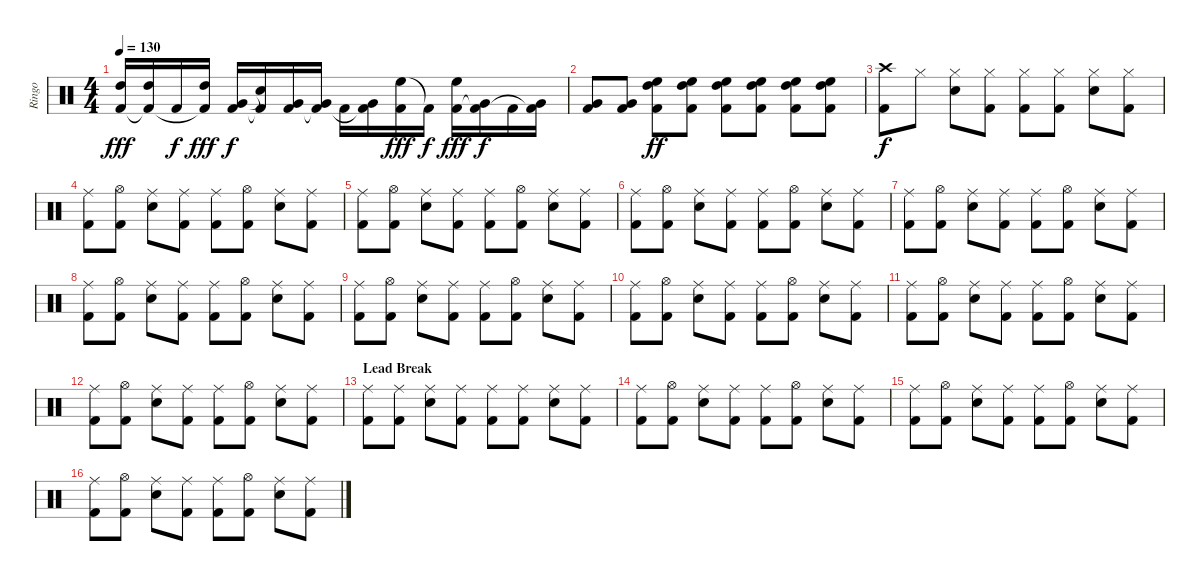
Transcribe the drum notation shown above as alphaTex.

\track ("Ringo" "Ringo") {instrument percussion}
\staff {score}
\articulation defaults
\ts (4 4)
\tempo 130
\clef neutral
\ks c
("High Tom (hit)" "Kick (hit) 2").16{dy fff} ("High Tom (hit)" "Kick (hit) 2"{t}).16 "Kick (hit) 2".16{dy f} ("High Tom (hit)" "Kick (hit) 2"{t}).16{dy fff} ("Very Low Tom (hit)" "Kick (hit) 2").16{dy f} ("Snare (hit)"{t} "Kick (hit) 2"{t}).16 ("Very Low Tom (hit)" "Kick (hit) 2").16 ("Very Low Tom (hit)" "Kick (hit) 2"{t}).16 "Kick (hit) 2".16 ("Very Low Tom (hit)" "Kick (hit) 2"{t}).16 ("High Floor Tom (hit)" "Kick (hit) 2").16{dy fff} "Kick (hit) 2"{t}.16{dy f} ("High Floor Tom (hit)" "Kick (hit) 2").16{dy fff} ("Very Low Tom (hit)" "Kick (hit) 2"{t}).16{dy f} "Kick (hit) 2".16 ("Very Low Tom (hit)" "Kick (hit) 2"{t}).16 |
("Very Low Tom (hit)" "Kick (hit) 2").8 ("Very Low Tom (hit)" "Kick (hit) 2").8 ("High Floor Tom (hit)" "High Tom (hit)" "Kick (hit) 2").8{dy ff} ("High Floor Tom (hit)" "High Tom (hit)" "Kick (hit) 2").8 ("High Floor Tom (hit)" "High Tom (hit)" "Kick (hit) 2").8 ("High Floor Tom (hit)" "High Tom (hit)" "Kick (hit) 2").8 ("High Floor Tom (hit)" "High Tom (hit)" "Kick (hit) 2").8 ("High Floor Tom (hit)" "High Tom (hit)" "Kick (hit) 2").8 |
("Crash high (hit)" "Kick (hit) 2").8{dy f} "Hi-Hat (closed)".8 ("Hi-Hat (closed)" "Snare (hit) 2").8 ("Hi-Hat (closed)" "Kick (hit) 2").8 ("Hi-Hat (closed)" "Kick (hit) 2").8 ("Hi-Hat (closed)" "Kick (hit) 2").8 ("Hi-Hat (closed)" "Snare (hit) 2").8 ("Hi-Hat (closed)" "Kick (hit) 2").8 |
("Ride (middle)" "Kick (hit) 2").8 ("Hi-Hat (open)" "Kick (hit) 2").8 ("Ride (middle)" "Snare (hit) 2").8 ("Ride (middle)" "Kick (hit) 2").8 ("Ride (middle)" "Kick (hit) 2").8 ("Hi-Hat (open)" "Kick (hit) 2").8 ("Ride (middle)" "Snare (hit) 2").8 ("Ride (middle)" "Kick (hit) 2").8 |
("Ride (middle)" "Kick (hit) 2").8 ("Hi-Hat (open)" "Kick (hit) 2").8 ("Ride (middle)" "Snare (hit) 2").8 ("Ride (middle)" "Kick (hit) 2").8 ("Ride (middle)" "Kick (hit) 2").8 ("Hi-Hat (open)" "Kick (hit) 2").8 ("Ride (middle)" "Snare (hit) 2").8 ("Ride (middle)" "Kick (hit) 2").8 |
("Ride (middle)" "Kick (hit) 2").8 ("Hi-Hat (open)" "Kick (hit) 2").8 ("Ride (middle)" "Snare (hit) 2").8 ("Ride (middle)" "Kick (hit) 2").8 ("Ride (middle)" "Kick (hit) 2").8 ("Hi-Hat (open)" "Kick (hit) 2").8 ("Ride (middle)" "Snare (hit) 2").8 ("Ride (middle)" "Kick (hit) 2").8 |
("Ride (middle)" "Kick (hit) 2").8 ("Hi-Hat (open)" "Kick (hit) 2").8 ("Ride (middle)" "Snare (hit) 2").8 ("Ride (middle)" "Kick (hit) 2").8 ("Ride (middle)" "Kick (hit) 2").8 ("Hi-Hat (open)" "Kick (hit) 2").8 ("Ride (middle)" "Snare (hit) 2").8 ("Ride (middle)" "Kick (hit) 2").8 |
("Ride (middle)" "Kick (hit) 2").8 ("Hi-Hat (open)" "Kick (hit) 2").8 ("Ride (middle)" "Snare (hit) 2").8 ("Ride (middle)" "Kick (hit) 2").8 ("Ride (middle)" "Kick (hit) 2").8 ("Hi-Hat (open)" "Kick (hit) 2").8 ("Ride (middle)" "Snare (hit) 2").8 ("Ride (middle)" "Kick (hit) 2").8 |
("Ride (middle)" "Kick (hit) 2").8 ("Hi-Hat (open)" "Kick (hit) 2").8 ("Ride (middle)" "Snare (hit) 2").8 ("Ride (middle)" "Kick (hit) 2").8 ("Ride (middle)" "Kick (hit) 2").8 ("Hi-Hat (open)" "Kick (hit) 2").8 ("Ride (middle)" "Snare (hit) 2").8 ("Ride (middle)" "Kick (hit) 2").8 |
("Ride (middle)" "Kick (hit) 2").8 ("Hi-Hat (open)" "Kick (hit) 2").8 ("Ride (middle)" "Snare (hit) 2").8 ("Ride (middle)" "Kick (hit) 2").8 ("Ride (middle)" "Kick (hit) 2").8 ("Hi-Hat (open)" "Kick (hit) 2").8 ("Ride (middle)" "Snare (hit) 2").8 ("Ride (middle)" "Kick (hit) 2").8 |
("Ride (middle)" "Kick (hit) 2").8 ("Hi-Hat (open)" "Kick (hit) 2").8 ("Ride (middle)" "Snare (hit) 2").8 ("Ride (middle)" "Kick (hit) 2").8 ("Ride (middle)" "Kick (hit) 2").8 ("Hi-Hat (open)" "Kick (hit) 2").8 ("Ride (middle)" "Snare (hit) 2").8 ("Ride (middle)" "Kick (hit) 2").8 |
("Ride (middle)" "Kick (hit) 2").8 ("Hi-Hat (open)" "Kick (hit) 2").8 ("Ride (middle)" "Snare (hit) 2").8 ("Ride (middle)" "Kick (hit) 2").8 ("Ride (middle)" "Kick (hit) 2").8 ("Hi-Hat (open)" "Kick (hit) 2").8 ("Ride (middle)" "Snare (hit) 2").8 ("Ride (middle)" "Kick (hit) 2").8 |
\section ("" "Lead Break")
("Ride (middle)" "Kick (hit) 2").8 ("Ride (middle)" "Kick (hit) 2").8 ("Ride (middle)" "Snare (hit) 2").8 ("Ride (middle)" "Kick (hit) 2").8 ("Ride (middle)" "Kick (hit) 2").8 ("Ride (middle)" "Kick (hit) 2").8 ("Ride (middle)" "Snare (hit) 2").8 ("Ride (middle)" "Kick (hit) 2").8 |
("Ride (middle)" "Kick (hit) 2").8 ("Hi-Hat (open)" "Kick (hit) 2").8 ("Ride (middle)" "Snare (hit) 2").8 ("Ride (middle)" "Kick (hit) 2").8 ("Ride (middle)" "Kick (hit) 2").8 ("Hi-Hat (open)" "Kick (hit) 2").8 ("Ride (middle)" "Snare (hit) 2").8 ("Ride (middle)" "Kick (hit) 2").8 |
("Ride (middle)" "Kick (hit) 2").8 ("Hi-Hat (open)" "Kick (hit) 2").8 ("Ride (middle)" "Snare (hit) 2").8 ("Ride (middle)" "Kick (hit) 2").8 ("Ride (middle)" "Kick (hit) 2").8 ("Hi-Hat (open)" "Kick (hit) 2").8 ("Ride (middle)" "Snare (hit) 2").8 ("Ride (middle)" "Kick (hit) 2").8 |
("Ride (middle)" "Kick (hit) 2").8 ("Hi-Hat (open)" "Kick (hit) 2").8 ("Ride (middle)" "Snare (hit) 2").8 ("Ride (middle)" "Kick (hit) 2").8 ("Ride (middle)" "Kick (hit) 2").8 ("Hi-Hat (open)" "Kick (hit) 2").8 ("Ride (middle)" "Snare (hit) 2").8 ("Ride (middle)" "Kick (hit) 2").8
